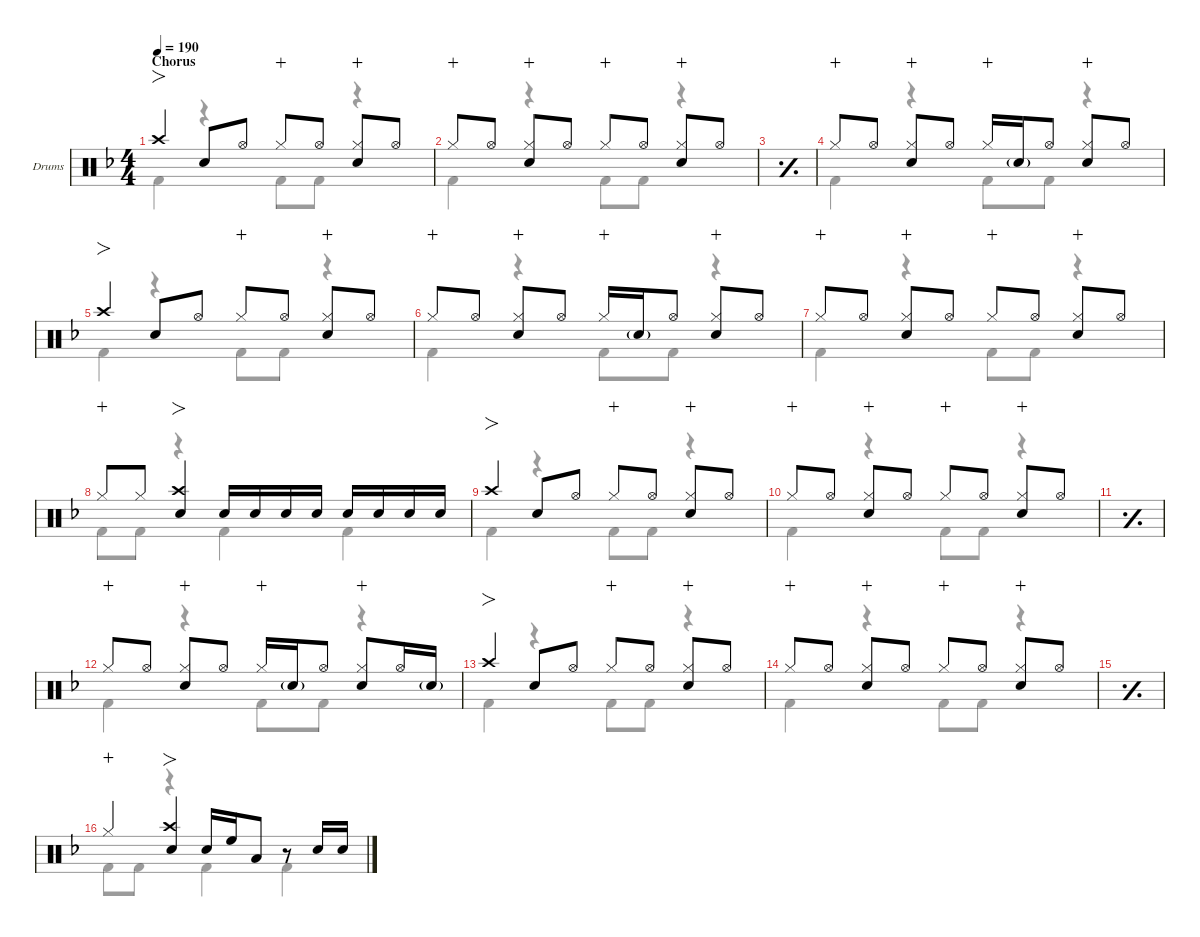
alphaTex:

\defaultSystemsLayout 4
\hideDynamics
\bracketExtendMode nobrackets
\firstSystemTrackNameOrientation horizontal
\track ("Drums" "Drums") {defaultSystemsLayout 4 instrument percussion}
\staff {score}
\articulation defaults
\voice
\ts (4 4)
\section ("" "Chorus")
\tempo 190
\clef neutral
\ks dminor "Crash high (hit)"{acc forcenatural}.4{fo dy f} "Snare (hit) 2"{acc forcenatural}.8 "Hi-Hat (open)"{acc forcenatural}.8 "Hi-Hat (closed)"{acc forcenatural}.8{wahc} "Hi-Hat (open)"{acc forcenatural}.8
("Hi-Hat (closed)"{acc forcenatural} "Snare (hit) 2"{acc forcenatural}).8{wahc} "Hi-Hat (open)"{acc forcenatural}.8 |
"Hi-Hat (closed)"{acc forcenatural}.8{wahc} "Hi-Hat (open)"{acc forcenatural}.8 ("Hi-Hat (closed)"{acc forcenatural} "Snare (hit) 2"{acc forcenatural}).8{wahc} "Hi-Hat (open)"{acc forcenatural}.8 "Hi-Hat (closed)"{acc forcenatural}.8{wahc} "Hi-Hat (open)"{acc forcenatural}.8 ("Hi-Hat (closed)"{acc forcenatural} "Snare (hit) 2"{acc forcenatural}).8{wahc} "Hi-Hat (open)"{acc forcenatural}.8 |
\simile simple
|
\simile none "Hi-Hat (closed)"{acc forcenatural}.8{wahc} "Hi-Hat (open)"{acc forcenatural}.8
("Hi-Hat (closed)"{acc forcenatural} "Snare (hit) 2"{acc forcenatural}).8{wahc} "Hi-Hat (open)"{acc forcenatural}.8 "Hi-Hat (closed)"{acc forcenatural}.16{wahc} "Snare (hit) 2"{g acc forcenatural}.16{dy mf} "Hi-Hat (open)"{acc forcenatural}.8{dy f beam split} ("Hi-Hat (closed)"{acc forcenatural} "Snare (hit) 2"{acc forcenatural}).8{wahc} "Hi-Hat (open)"{acc forcenatural}.8 |
"Crash high (hit)"{acc forcenatural}.4{fo} "Snare (hit) 2"{acc forcenatural}.8 "Hi-Hat (open)"{acc forcenatural}.8 "Hi-Hat (closed)"{acc forcenatural}.8{wahc} "Hi-Hat (open)"{acc forcenatural}.8 ("Hi-Hat (closed)"{acc forcenatural} "Snare (hit) 2"{acc forcenatural}).8{wahc} "Hi-Hat (open)"{acc forcenatural}.8 |
"Hi-Hat (closed)"{acc forcenatural}.8{wahc} "Hi-Hat (open)"{acc forcenatural}.8 ("Hi-Hat (closed)"{acc forcenatural} "Snare (hit) 2"{acc forcenatural}).8{wahc} "Hi-Hat (open)"{acc forcenatural}.8 "Hi-Hat (closed)"{acc forcenatural}.16{wahc} "Snare (hit) 2"{g acc forcenatural}.16{dy mf} "Hi-Hat (open)"{acc forcenatural}.8{dy f beam split} ("Hi-Hat (closed)"{acc forcenatural} "Snare (hit) 2"{acc forcenatural}).8{wahc} "Hi-Hat (open)"{acc forcenatural}.8 |
"Hi-Hat (closed)"{acc forcenatural}.8{wahc} "Hi-Hat (open)"{acc forcenatural}.8 ("Hi-Hat (closed)"{acc forcenatural} "Snare (hit) 2"{acc forcenatural}).8{wahc} "Hi-Hat (open)"{acc forcenatural}.8 "Hi-Hat (closed)"{acc forcenatural}.8{wahc} "Hi-Hat (open)"{acc forcenatural}.8 ("Hi-Hat (closed)"{acc forcenatural} "Snare (hit) 2"{acc forcenatural}).8{wahc} "Hi-Hat (open)"{acc forcenatural}.8 |
"Hi-Hat (closed)"{acc forcenatural}.8{dy mp wahc} "Hi-Hat (closed)"{acc forcenatural}.8{dy f} ("Snare (hit) 2"{acc forcenatural} "Crash high (hit)"{acc forcenatural}).4{fo} "Snare (hit) 2"{acc forcenatural}.16 "Snare (hit) 2"{acc forcenatural}.16{dy mf} "Snare (hit) 2"{acc forcenatural}.16{dy f} "Snare (hit) 2"{acc forcenatural}.16{dy mf beam split} "Snare (hit) 2"{acc forcenatural}.16{dy f} "Snare (hit) 2"{acc forcenatural}.16{dy mf} "Snare (hit) 2"{acc forcenatural}.16{dy f} "Snare (hit) 2"{acc forcenatural}.16{dy mf} |
"Crash high (hit)"{acc forcenatural}.4{fo dy f} "Snare (hit) 2"{acc forcenatural}.8 "Hi-Hat (open)"{acc forcenatural}.8 "Hi-Hat (closed)"{acc forcenatural}.8{wahc} "Hi-Hat (open)"{acc forcenatural}.8 ("Hi-Hat (closed)"{acc forcenatural} "Snare (hit) 2"{acc forcenatural}).8{wahc} "Hi-Hat (open)"{acc forcenatural}.8 |
"Hi-Hat (closed)"{acc forcenatural}.8{wahc} "Hi-Hat (open)"{acc forcenatural}.8 ("Hi-Hat (closed)"{acc forcenatural} "Snare (hit) 2"{acc forcenatural}).8{wahc} "Hi-Hat (open)"{acc forcenatural}.8 "Hi-Hat (closed)"{acc forcenatural}.8{wahc} "Hi-Hat (open)"{acc forcenatural}.8 ("Hi-Hat (closed)"{acc forcenatural} "Snare (hit) 2"{acc forcenatural}).8{wahc} "Hi-Hat (open)"{acc forcenatural}.8 |
\simile simple
|
\simile none "Hi-Hat (closed)"{acc forcenatural}.8{wahc} "Hi-Hat (open)"{acc forcenatural}.8
("Hi-Hat (closed)"{acc forcenatural} "Snare (hit) 2"{acc forcenatural}).8{wahc} "Hi-Hat (open)"{acc forcenatural}.8 "Hi-Hat (closed)"{acc forcenatural}.16{wahc} "Snare (hit) 2"{g acc forcenatural}.16{dy mf} "Hi-Hat (open)"{acc forcenatural}.8{dy f beam split} ("Hi-Hat (closed)"{acc forcenatural} "Snare (hit) 2"{acc forcenatural}).8{wahc} "Hi-Hat (open)"{acc forcenatural}.16 "Snare (hit) 2"{g acc forcenatural}.16{dy mf} |
"Crash high (hit)"{acc forcenatural}.4{fo dy f} "Snare (hit) 2"{acc forcenatural}.8 "Hi-Hat (open)"{acc forcenatural}.8 "Hi-Hat (closed)"{acc forcenatural}.8{wahc} "Hi-Hat (open)"{acc forcenatural}.8 ("Hi-Hat (closed)"{acc forcenatural} "Snare (hit) 2"{acc forcenatural}).8{wahc} "Hi-Hat (open)"{acc forcenatural}.8 |
"Hi-Hat (closed)"{acc forcenatural}.8{wahc} "Hi-Hat (open)"{acc forcenatural}.8 ("Hi-Hat (closed)"{acc forcenatural} "Snare (hit) 2"{acc forcenatural}).8{wahc} "Hi-Hat (open)"{acc forcenatural}.8 "Hi-Hat (closed)"{acc forcenatural}.8{wahc} "Hi-Hat (open)"{acc forcenatural}.8 ("Hi-Hat (closed)"{acc forcenatural} "Snare (hit) 2"{acc forcenatural}).8{wahc} "Hi-Hat (open)"{acc forcenatural}.8 |
\simile simple
|
\simile none "Hi-Hat (closed)"{acc forcenatural}.4{dy mp wahc}
("Snare (hit) 2"{acc forcenatural} "Crash high (hit)"{acc forcenatural}).4{fo dy f} "Snare (hit) 2"{acc forcenatural}.16{dy mf} "High Floor Tom (hit)"{acc forcenatural}.16 "Low Tom (hit)"{acc forcenatural}.8{beam split} r.8{beam split} "Snare (hit) 2"{acc forcenatural}.16 "Snare (hit) 2"{acc forcenatural}.16
\voice
\clef neutral
\ottava regular
\simile none
\ks dminor "Kick (hit) 2"{acc forcenatural}.4{dy f}
r.4 "Kick (hit) 2"{acc forcenatural}.8 "Kick (hit) 2"{acc forcenatural}.8 r.4 |
"Kick (hit) 2"{acc forcenatural}.4 r.4 "Kick (hit) 2"{acc forcenatural}.8 "Kick (hit) 2"{acc forcenatural}.8 r.4 |
\simile simple
|
\simile none "Kick (hit) 2"{acc forcenatural}.4
r.4 "Kick (hit) 2"{acc forcenatural}.8 "Kick (hit) 2"{acc forcenatural}.8 r.4 |
"Kick (hit) 2"{acc forcenatural}.4 r.4 "Kick (hit) 2"{acc forcenatural}.8 "Kick (hit) 2"{acc forcenatural}.8 r.4 |
"Kick (hit) 2"{acc forcenatural}.4 r.4 "Kick (hit) 2"{acc forcenatural}.8 "Kick (hit) 2"{acc forcenatural}.8 r.4 |
"Kick (hit) 2"{acc forcenatural}.4 r.4 "Kick (hit) 2"{acc forcenatural}.8 "Kick (hit) 2"{acc forcenatural}.8 r.4 |
"Kick (hit) 2"{acc forcenatural}.8 "Kick (hit) 2"{acc forcenatural}.8 r.4 "Kick (hit) 2"{acc forcenatural}.4 "Kick (hit) 2"{acc forcenatural}.4 |
"Kick (hit) 2"{acc forcenatural}.4 r.4 "Kick (hit) 2"{acc forcenatural}.8 "Kick (hit) 2"{acc forcenatural}.8 r.4 |
"Kick (hit) 2"{acc forcenatural}.4 r.4 "Kick (hit) 2"{acc forcenatural}.8 "Kick (hit) 2"{acc forcenatural}.8 r.4 |
\simile simple
|
\simile none "Kick (hit) 2"{acc forcenatural}.4
r.4 "Kick (hit) 2"{acc forcenatural}.8 "Kick (hit) 2"{acc forcenatural}.8 r.4 |
"Kick (hit) 2"{acc forcenatural}.4 r.4 "Kick (hit) 2"{acc forcenatural}.8 "Kick (hit) 2"{acc forcenatural}.8 r.4 |
"Kick (hit) 2"{acc forcenatural}.4 r.4 "Kick (hit) 2"{acc forcenatural}.8 "Kick (hit) 2"{acc forcenatural}.8 r.4 |
\simile simple
|
\simile none "Kick (hit) 2"{acc forcenatural}.8 "Kick (hit) 2"{acc forcenatural}.8
r.4 "Kick (hit) 2"{acc forcenatural}.4 "Kick (hit) 2"{acc forcenatural}.4
